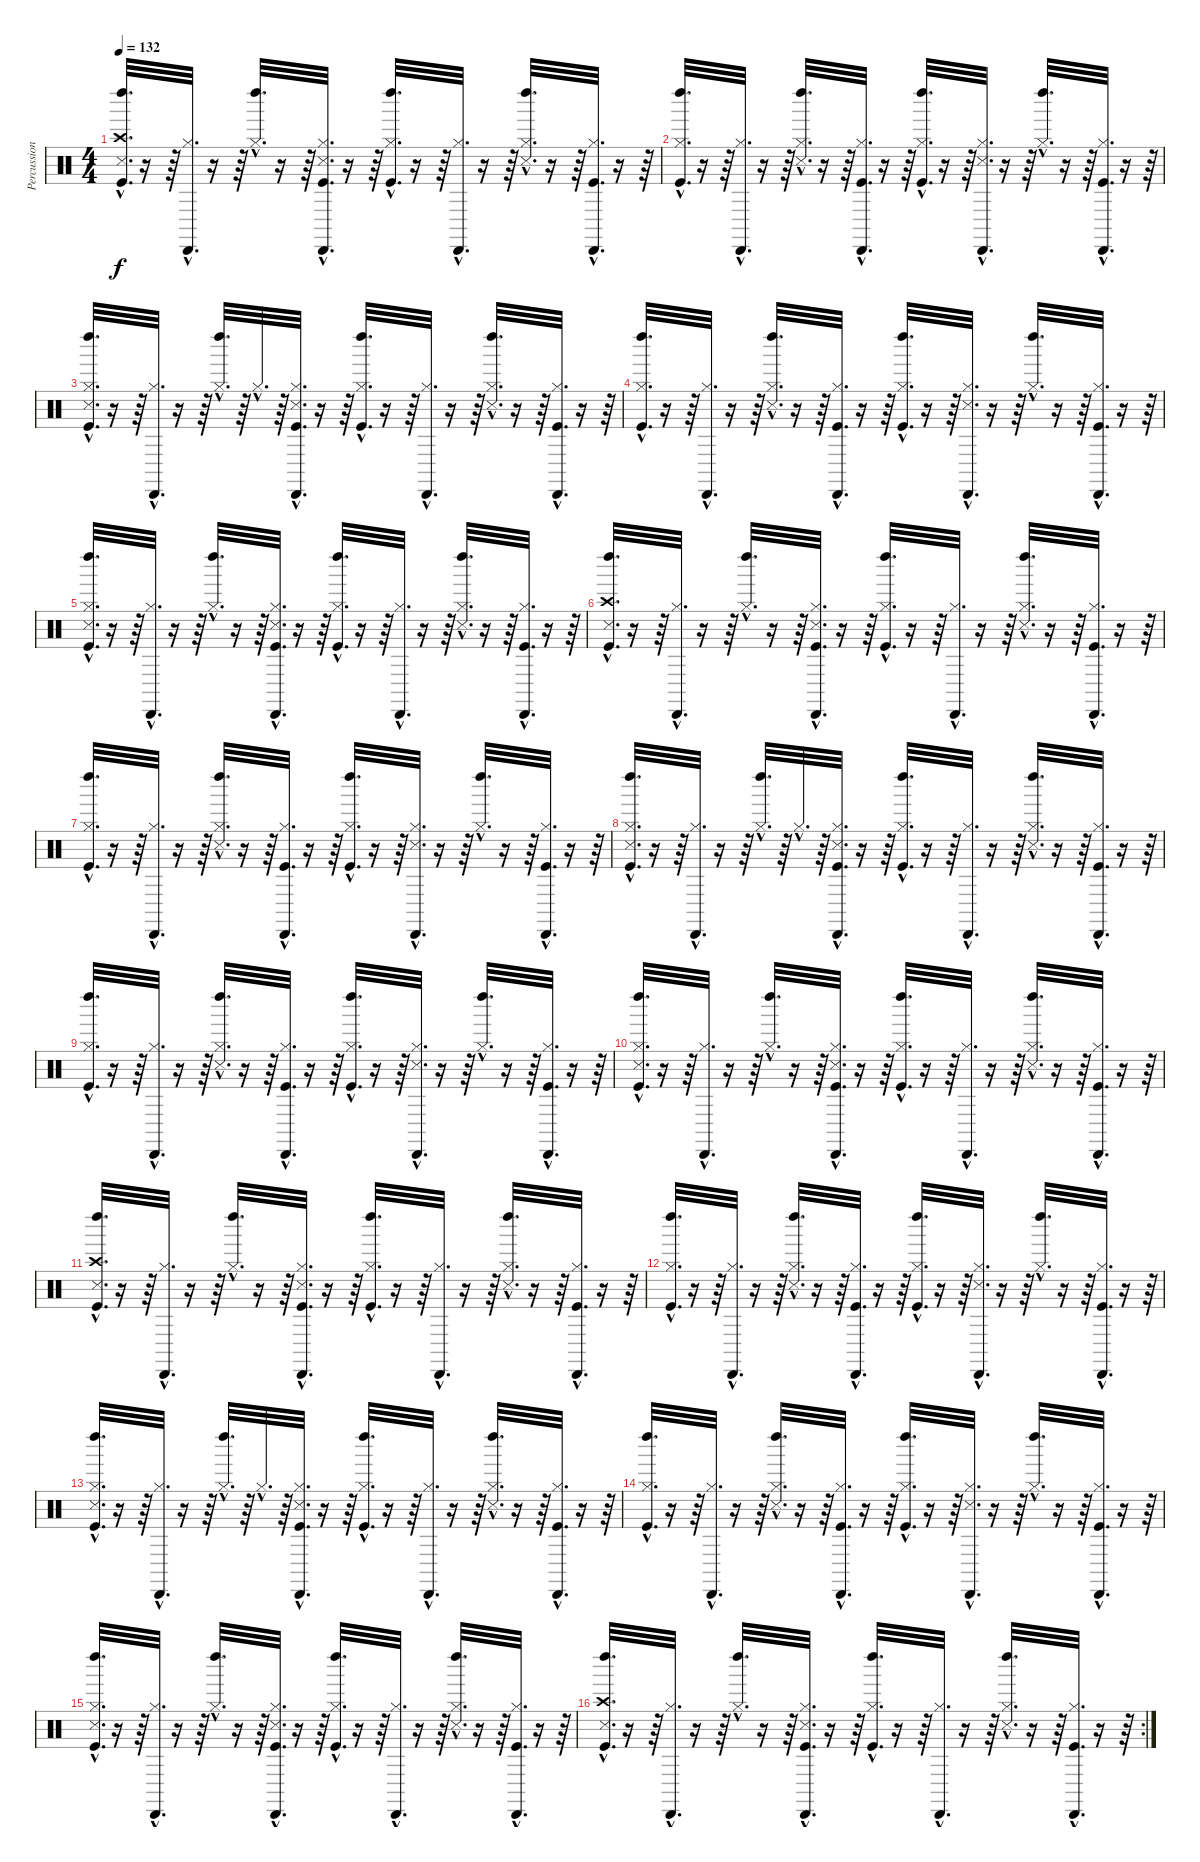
\track ("Percussions" "Percussion") {instrument percussion}
\staff {score}
\articulation defaults
\ts (4 4)
\tempo 132
\clef neutral
\ks c
("Kick (hit)"{hac} "Snare (side stick) 3"{hac} "Crash high (hit)"{hac} "Left Maraca (hit)"{hac}).32{d dy f} r.16 r.64 ("Hi-Hat (closed)"{hac} "Cabasa (hit)"{hac}).32{d} r.16 r.64 ("Hi-Hat (closed)"{hac} "Left Maraca (hit)"{hac}).32{d} r.16 r.64 ("Kick (hit)"{hac} "Hi-Hat (closed)"{hac} "Snare (side stick) 3"{hac} "Cabasa (hit)"{hac}).32{d} r.16 r.64 ("Kick (hit)"{hac} "Hi-Hat (closed)"{hac} "Left Maraca (hit)"{hac}).32{d} r.16 r.64 ("Hi-Hat (closed)"{hac} "Cabasa (hit)"{hac}).32{d} r.16 r.64 ("Hi-Hat (closed)"{hac} "Snare (side stick) 3"{hac} "Left Maraca (hit)"{hac}).32{d} r.16 r.64 ("Kick (hit)"{hac} "Hi-Hat (closed)"{hac} "Cabasa (hit)"{hac}).32{d} r.16 r.64 |
("Kick (hit)"{hac} "Hi-Hat (closed)"{hac} "Left Maraca (hit)"{hac}).32{d} r.16 r.64 ("Hi-Hat (closed)"{hac} "Cabasa (hit)"{hac}).32{d} r.16 r.64 ("Hi-Hat (closed)"{hac} "Snare (side stick) 3"{hac} "Left Maraca (hit)"{hac}).32{d} r.16 r.64 ("Kick (hit)"{hac} "Hi-Hat (closed)"{hac} "Cabasa (hit)"{hac}).32{d} r.16 r.64 ("Kick (hit)"{hac} "Hi-Hat (closed)"{hac} "Left Maraca (hit)"{hac}).32{d} r.16 r.64 ("Hi-Hat (closed)"{hac} "Snare (side stick) 3"{hac} "Cabasa (hit)"{hac}).32{d} r.16 r.64 ("Hi-Hat (closed)"{hac} "Left Maraca (hit)"{hac}).32{d} r.16 r.64 ("Kick (hit)"{hac} "Hi-Hat (closed)"{hac} "Cabasa (hit)"{hac}).32{d} r.16 r.64 |
("Kick (hit)"{hac} "Hi-Hat (closed)"{hac} "Snare (side stick) 3"{hac} "Left Maraca (hit)"{hac}).32{d} r.16 r.64 ("Hi-Hat (closed)"{hac} "Cabasa (hit)"{hac}).32{d} r.16 r.64 ("Hi-Hat (closed)"{hac} "Left Maraca (hit)"{hac}).32{d} r.64 "Hi-Hat (closed)"{hac}.32{d} r.64 ("Kick (hit)"{hac} "Hi-Hat (closed)"{hac} "Snare (side stick) 3"{hac} "Cabasa (hit)"{hac}).32{d} r.16 r.64 ("Kick (hit)"{hac} "Hi-Hat (closed)"{hac} "Left Maraca (hit)"{hac}).32{d} r.16 r.64 ("Hi-Hat (closed)"{hac} "Cabasa (hit)"{hac}).32{d} r.16 r.64 ("Hi-Hat (closed)"{hac} "Snare (side stick) 3"{hac} "Left Maraca (hit)"{hac}).32{d} r.16 r.64 ("Kick (hit)"{hac} "Hi-Hat (closed)"{hac} "Cabasa (hit)"{hac}).32{d} r.16 r.64 |
("Kick (hit)"{hac} "Hi-Hat (closed)"{hac} "Left Maraca (hit)"{hac}).32{d} r.16 r.64 ("Hi-Hat (closed)"{hac} "Cabasa (hit)"{hac}).32{d} r.16 r.64 ("Hi-Hat (closed)"{hac} "Snare (side stick) 3"{hac} "Left Maraca (hit)"{hac}).32{d} r.16 r.64 ("Kick (hit)"{hac} "Hi-Hat (closed)"{hac} "Cabasa (hit)"{hac}).32{d} r.16 r.64 ("Kick (hit)"{hac} "Hi-Hat (closed)"{hac} "Left Maraca (hit)"{hac}).32{d} r.16 r.64 ("Hi-Hat (closed)"{hac} "Snare (side stick) 3"{hac} "Cabasa (hit)"{hac}).32{d} r.16 r.64 ("Hi-Hat (closed)"{hac} "Left Maraca (hit)"{hac}).32{d} r.16 r.64 ("Kick (hit)"{hac} "Hi-Hat (closed)"{hac} "Cabasa (hit)"{hac}).32{d} r.16 r.64 |
("Kick (hit)"{hac} "Hi-Hat (closed)"{hac} "Snare (side stick) 3"{hac} "Left Maraca (hit)"{hac}).32{d} r.16 r.64 ("Hi-Hat (closed)"{hac} "Cabasa (hit)"{hac}).32{d} r.16 r.64 ("Hi-Hat (closed)"{hac} "Left Maraca (hit)"{hac}).32{d} r.16 r.64 ("Kick (hit)"{hac} "Hi-Hat (closed)"{hac} "Snare (side stick) 3"{hac} "Cabasa (hit)"{hac}).32{d} r.16 r.64 ("Kick (hit)"{hac} "Hi-Hat (closed)"{hac} "Left Maraca (hit)"{hac}).32{d} r.16 r.64 ("Hi-Hat (closed)"{hac} "Cabasa (hit)"{hac}).32{d} r.16 r.64 ("Hi-Hat (closed)"{hac} "Snare (side stick) 3"{hac} "Left Maraca (hit)"{hac}).32{d} r.16 r.64 ("Kick (hit)"{hac} "Hi-Hat (closed)"{hac} "Cabasa (hit)"{hac}).32{d} r.16 r.64 |
("Kick (hit)"{hac} "Snare (side stick) 3"{hac} "Crash high (hit)"{hac} "Left Maraca (hit)"{hac}).32{d} r.16 r.64 ("Hi-Hat (closed)"{hac} "Cabasa (hit)"{hac}).32{d} r.16 r.64 ("Hi-Hat (closed)"{hac} "Left Maraca (hit)"{hac}).32{d} r.16 r.64 ("Kick (hit)"{hac} "Hi-Hat (closed)"{hac} "Snare (side stick) 3"{hac} "Cabasa (hit)"{hac}).32{d} r.16 r.64 ("Kick (hit)"{hac} "Hi-Hat (closed)"{hac} "Left Maraca (hit)"{hac}).32{d} r.16 r.64 ("Hi-Hat (closed)"{hac} "Cabasa (hit)"{hac}).32{d} r.16 r.64 ("Hi-Hat (closed)"{hac} "Snare (side stick) 3"{hac} "Left Maraca (hit)"{hac}).32{d} r.16 r.64 ("Kick (hit)"{hac} "Hi-Hat (closed)"{hac} "Cabasa (hit)"{hac}).32{d} r.16 r.64 |
("Kick (hit)"{hac} "Hi-Hat (closed)"{hac} "Left Maraca (hit)"{hac}).32{d} r.16 r.64 ("Hi-Hat (closed)"{hac} "Cabasa (hit)"{hac}).32{d} r.16 r.64 ("Hi-Hat (closed)"{hac} "Snare (side stick) 3"{hac} "Left Maraca (hit)"{hac}).32{d} r.16 r.64 ("Kick (hit)"{hac} "Hi-Hat (closed)"{hac} "Cabasa (hit)"{hac}).32{d} r.16 r.64 ("Kick (hit)"{hac} "Hi-Hat (closed)"{hac} "Left Maraca (hit)"{hac}).32{d} r.16 r.64 ("Hi-Hat (closed)"{hac} "Snare (side stick) 3"{hac} "Cabasa (hit)"{hac}).32{d} r.16 r.64 ("Hi-Hat (closed)"{hac} "Left Maraca (hit)"{hac}).32{d} r.16 r.64 ("Kick (hit)"{hac} "Hi-Hat (closed)"{hac} "Cabasa (hit)"{hac}).32{d} r.16 r.64 |
("Kick (hit)"{hac} "Hi-Hat (closed)"{hac} "Snare (side stick) 3"{hac} "Left Maraca (hit)"{hac}).32{d} r.16 r.64 ("Hi-Hat (closed)"{hac} "Cabasa (hit)"{hac}).32{d} r.16 r.64 ("Hi-Hat (closed)"{hac} "Left Maraca (hit)"{hac}).32{d} r.64 "Hi-Hat (closed)"{hac}.32{d} r.64 ("Kick (hit)"{hac} "Hi-Hat (closed)"{hac} "Snare (side stick) 3"{hac} "Cabasa (hit)"{hac}).32{d} r.16 r.64 ("Kick (hit)"{hac} "Hi-Hat (closed)"{hac} "Left Maraca (hit)"{hac}).32{d} r.16 r.64 ("Hi-Hat (closed)"{hac} "Cabasa (hit)"{hac}).32{d} r.16 r.64 ("Hi-Hat (closed)"{hac} "Snare (side stick) 3"{hac} "Left Maraca (hit)"{hac}).32{d} r.16 r.64 ("Kick (hit)"{hac} "Hi-Hat (closed)"{hac} "Cabasa (hit)"{hac}).32{d} r.16 r.64 |
("Kick (hit)"{hac} "Hi-Hat (closed)"{hac} "Left Maraca (hit)"{hac}).32{d} r.16 r.64 ("Hi-Hat (closed)"{hac} "Cabasa (hit)"{hac}).32{d} r.16 r.64 ("Hi-Hat (closed)"{hac} "Snare (side stick) 3"{hac} "Left Maraca (hit)"{hac}).32{d} r.16 r.64 ("Kick (hit)"{hac} "Hi-Hat (closed)"{hac} "Cabasa (hit)"{hac}).32{d} r.16 r.64 ("Kick (hit)"{hac} "Hi-Hat (closed)"{hac} "Left Maraca (hit)"{hac}).32{d} r.16 r.64 ("Hi-Hat (closed)"{hac} "Snare (side stick) 3"{hac} "Cabasa (hit)"{hac}).32{d} r.16 r.64 ("Hi-Hat (closed)"{hac} "Left Maraca (hit)"{hac}).32{d} r.16 r.64 ("Kick (hit)"{hac} "Hi-Hat (closed)"{hac} "Cabasa (hit)"{hac}).32{d} r.16 r.64 |
("Kick (hit)"{hac} "Hi-Hat (closed)"{hac} "Snare (side stick) 3"{hac} "Left Maraca (hit)"{hac}).32{d} r.16 r.64 ("Hi-Hat (closed)"{hac} "Cabasa (hit)"{hac}).32{d} r.16 r.64 ("Hi-Hat (closed)"{hac} "Left Maraca (hit)"{hac}).32{d} r.16 r.64 ("Kick (hit)"{hac} "Hi-Hat (closed)"{hac} "Snare (side stick) 3"{hac} "Cabasa (hit)"{hac}).32{d} r.16 r.64 ("Kick (hit)"{hac} "Hi-Hat (closed)"{hac} "Left Maraca (hit)"{hac}).32{d} r.16 r.64 ("Hi-Hat (closed)"{hac} "Cabasa (hit)"{hac}).32{d} r.16 r.64 ("Hi-Hat (closed)"{hac} "Snare (side stick) 3"{hac} "Left Maraca (hit)"{hac}).32{d} r.16 r.64 ("Kick (hit)"{hac} "Hi-Hat (closed)"{hac} "Cabasa (hit)"{hac}).32{d} r.16 r.64 |
("Kick (hit)"{hac} "Snare (side stick) 3"{hac} "Crash high (hit)"{hac} "Left Maraca (hit)"{hac}).32{d} r.16 r.64 ("Hi-Hat (closed)"{hac} "Cabasa (hit)"{hac}).32{d} r.16 r.64 ("Hi-Hat (closed)"{hac} "Left Maraca (hit)"{hac}).32{d} r.16 r.64 ("Kick (hit)"{hac} "Hi-Hat (closed)"{hac} "Snare (side stick) 3"{hac} "Cabasa (hit)"{hac}).32{d} r.16 r.64 ("Kick (hit)"{hac} "Hi-Hat (closed)"{hac} "Left Maraca (hit)"{hac}).32{d} r.16 r.64 ("Hi-Hat (closed)"{hac} "Cabasa (hit)"{hac}).32{d} r.16 r.64 ("Hi-Hat (closed)"{hac} "Snare (side stick) 3"{hac} "Left Maraca (hit)"{hac}).32{d} r.16 r.64 ("Kick (hit)"{hac} "Hi-Hat (closed)"{hac} "Cabasa (hit)"{hac}).32{d} r.16 r.64 |
("Kick (hit)"{hac} "Hi-Hat (closed)"{hac} "Left Maraca (hit)"{hac}).32{d} r.16 r.64 ("Hi-Hat (closed)"{hac} "Cabasa (hit)"{hac}).32{d} r.16 r.64 ("Hi-Hat (closed)"{hac} "Snare (side stick) 3"{hac} "Left Maraca (hit)"{hac}).32{d} r.16 r.64 ("Kick (hit)"{hac} "Hi-Hat (closed)"{hac} "Cabasa (hit)"{hac}).32{d} r.16 r.64 ("Kick (hit)"{hac} "Hi-Hat (closed)"{hac} "Left Maraca (hit)"{hac}).32{d} r.16 r.64 ("Hi-Hat (closed)"{hac} "Snare (side stick) 3"{hac} "Cabasa (hit)"{hac}).32{d} r.16 r.64 ("Hi-Hat (closed)"{hac} "Left Maraca (hit)"{hac}).32{d} r.16 r.64 ("Kick (hit)"{hac} "Hi-Hat (closed)"{hac} "Cabasa (hit)"{hac}).32{d} r.16 r.64 |
("Kick (hit)"{hac} "Hi-Hat (closed)"{hac} "Snare (side stick) 3"{hac} "Left Maraca (hit)"{hac}).32{d} r.16 r.64 ("Hi-Hat (closed)"{hac} "Cabasa (hit)"{hac}).32{d} r.16 r.64 ("Hi-Hat (closed)"{hac} "Left Maraca (hit)"{hac}).32{d} r.64 "Hi-Hat (closed)"{hac}.32{d} r.64 ("Kick (hit)"{hac} "Hi-Hat (closed)"{hac} "Snare (side stick) 3"{hac} "Cabasa (hit)"{hac}).32{d} r.16 r.64 ("Kick (hit)"{hac} "Hi-Hat (closed)"{hac} "Left Maraca (hit)"{hac}).32{d} r.16 r.64 ("Hi-Hat (closed)"{hac} "Cabasa (hit)"{hac}).32{d} r.16 r.64 ("Hi-Hat (closed)"{hac} "Snare (side stick) 3"{hac} "Left Maraca (hit)"{hac}).32{d} r.16 r.64 ("Kick (hit)"{hac} "Hi-Hat (closed)"{hac} "Cabasa (hit)"{hac}).32{d} r.16 r.64 |
("Kick (hit)"{hac} "Hi-Hat (closed)"{hac} "Left Maraca (hit)"{hac}).32{d} r.16 r.64 ("Hi-Hat (closed)"{hac} "Cabasa (hit)"{hac}).32{d} r.16 r.64 ("Hi-Hat (closed)"{hac} "Snare (side stick) 3"{hac} "Left Maraca (hit)"{hac}).32{d} r.16 r.64 ("Kick (hit)"{hac} "Hi-Hat (closed)"{hac} "Cabasa (hit)"{hac}).32{d} r.16 r.64 ("Kick (hit)"{hac} "Hi-Hat (closed)"{hac} "Left Maraca (hit)"{hac}).32{d} r.16 r.64 ("Hi-Hat (closed)"{hac} "Snare (side stick) 3"{hac} "Cabasa (hit)"{hac}).32{d} r.16 r.64 ("Hi-Hat (closed)"{hac} "Left Maraca (hit)"{hac}).32{d} r.16 r.64 ("Kick (hit)"{hac} "Hi-Hat (closed)"{hac} "Cabasa (hit)"{hac}).32{d} r.16 r.64 |
("Kick (hit)"{hac} "Hi-Hat (closed)"{hac} "Snare (side stick) 3"{hac} "Left Maraca (hit)"{hac}).32{d} r.16 r.64 ("Hi-Hat (closed)"{hac} "Cabasa (hit)"{hac}).32{d} r.16 r.64 ("Hi-Hat (closed)"{hac} "Left Maraca (hit)"{hac}).32{d} r.16 r.64 ("Kick (hit)"{hac} "Hi-Hat (closed)"{hac} "Snare (side stick) 3"{hac} "Cabasa (hit)"{hac}).32{d} r.16 r.64 ("Kick (hit)"{hac} "Hi-Hat (closed)"{hac} "Left Maraca (hit)"{hac}).32{d} r.16 r.64 ("Hi-Hat (closed)"{hac} "Cabasa (hit)"{hac}).32{d} r.16 r.64 ("Hi-Hat (closed)"{hac} "Snare (side stick) 3"{hac} "Left Maraca (hit)"{hac}).32{d} r.16 r.64 ("Kick (hit)"{hac} "Hi-Hat (closed)"{hac} "Cabasa (hit)"{hac}).32{d} r.16 r.64 |
\rc 2
("Kick (hit)"{hac} "Snare (side stick) 3"{hac} "Crash high (hit)"{hac} "Left Maraca (hit)"{hac}).32{d} r.16 r.64 ("Hi-Hat (closed)"{hac} "Cabasa (hit)"{hac}).32{d} r.16 r.64 ("Hi-Hat (closed)"{hac} "Left Maraca (hit)"{hac}).32{d} r.16 r.64 ("Kick (hit)"{hac} "Hi-Hat (closed)"{hac} "Snare (side stick) 3"{hac} "Cabasa (hit)"{hac}).32{d} r.16 r.64 ("Kick (hit)"{hac} "Hi-Hat (closed)"{hac} "Left Maraca (hit)"{hac}).32{d} r.16 r.64 ("Hi-Hat (closed)"{hac} "Cabasa (hit)"{hac}).32{d} r.16 r.64 ("Hi-Hat (closed)"{hac} "Snare (side stick) 3"{hac} "Left Maraca (hit)"{hac}).32{d} r.16 r.64 ("Kick (hit)"{hac} "Hi-Hat (closed)"{hac} "Cabasa (hit)"{hac}).32{d} r.16 r.64
